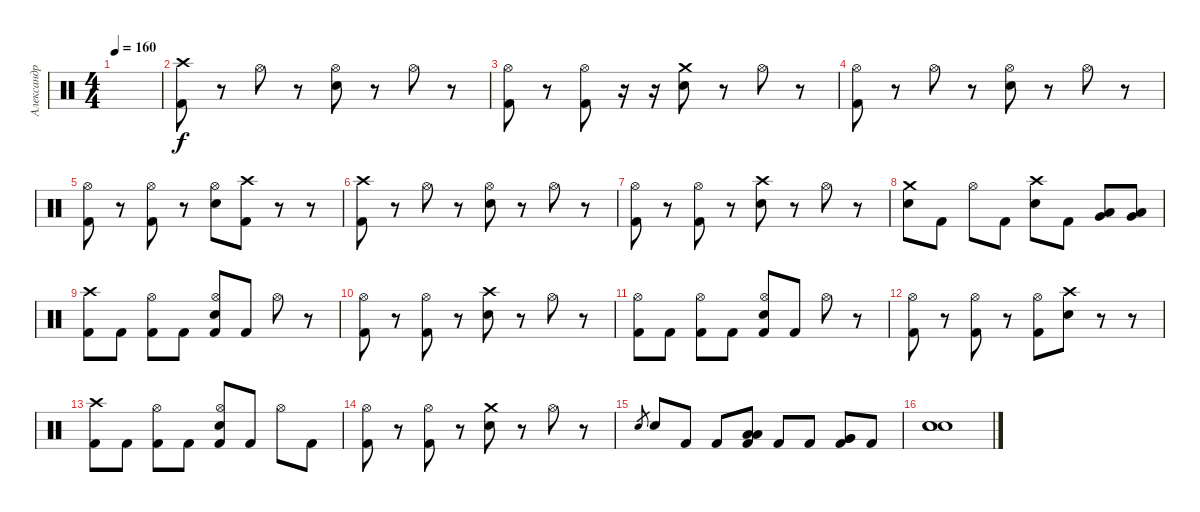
\track ("Александр Карпухин" "Александр ") {instrument percussion}
\staff {score}
\articulation defaults
\ts (4 4)
\tempo 160
\clef neutral
\ks c
|
("Crash high (hit)" "Kick (hit) 2").8 r.8 "Hi-Hat (open)".8 r.8 ("Hi-Hat (open)" "Electric Snare (hit)").8 r.8 "Hi-Hat (open)".8 r.8 |
("Hi-Hat (open)" "Kick (hit) 2").8 r.8 ("Hi-Hat (open)" "Kick (hit) 2").8 r.16 r.16 ("Crash medium (hit)" "Electric Snare (hit)").8 r.8 "Hi-Hat (open)".8 r.8 |
("Hi-Hat (open)" "Kick (hit) 2").8 r.8 "Hi-Hat (open)".8 r.8 ("Hi-Hat (open)" "Electric Snare (hit)").8 r.8 "Hi-Hat (open)".8 r.8 |
("Hi-Hat (open)" "Kick (hit) 2").8 r.8 ("Hi-Hat (open)" "Kick (hit) 2").8 r.8 ("Hi-Hat (open)" "Electric Snare (hit)").8 ("Crash high (hit)" "Kick (hit) 2").8 r.8 r.8 |
("Crash high (hit)" "Kick (hit) 2").8 r.8 "Hi-Hat (open)".8 r.8 ("Hi-Hat (open)" "Electric Snare (hit)").8 r.8 "Hi-Hat (open)".8 r.8 |
("Hi-Hat (open)" "Kick (hit) 2").8 r.8 ("Hi-Hat (open)" "Kick (hit) 2").8 r.8 ("Crash high (hit)" "Electric Snare (hit)").8 r.8 "Hi-Hat (open)".8 r.8 |
("Crash medium (hit)" "Electric Snare (hit)").8 "Kick (hit) 2".8 "Hi-Hat (open)".8 "Kick (hit) 2".8 ("Crash high (hit)" "Electric Snare (hit)").8 "Kick (hit) 2".8 ("Very Low Tom (hit)" "Low Floor Tom (hit)").8 ("Very Low Tom (hit)" "Low Floor Tom (hit)").8 |
("Crash high (hit)" "Kick (hit) 2").8 "Kick (hit) 2".8 ("Hi-Hat (open)" "Kick (hit) 2").8 "Kick (hit) 2".8 ("Hi-Hat (open)" "Electric Snare (hit)" "Kick (hit) 2").8 "Kick (hit) 2".8 "Hi-Hat (open)".8 r.8 |
("Hi-Hat (open)" "Kick (hit) 2").8 r.8 ("Hi-Hat (open)" "Kick (hit) 2").8 r.8 ("Crash high (hit)" "Electric Snare (hit)").8 r.8 "Hi-Hat (open)".8 r.8 |
("Hi-Hat (open)" "Kick (hit) 2").8 "Kick (hit) 2".8 ("Hi-Hat (open)" "Kick (hit) 2").8 "Kick (hit) 2".8 ("Hi-Hat (open)" "Electric Snare (hit)" "Kick (hit) 2").8 "Kick (hit) 2".8 "Hi-Hat (open)".8 r.8 |
("Hi-Hat (open)" "Kick (hit) 2").8 r.8 ("Hi-Hat (open)" "Kick (hit) 2").8 r.8 ("Hi-Hat (open)" "Kick (hit) 2").8 ("Crash high (hit)" "Electric Snare (hit)").8 r.8 r.8 |
("Crash high (hit)" "Kick (hit) 2").8 "Kick (hit) 2".8 ("Hi-Hat (open)" "Kick (hit) 2").8 "Kick (hit) 2".8 ("Hi-Hat (open)" "Electric Snare (hit)" "Kick (hit) 2").8 "Kick (hit) 2".8 "Hi-Hat (open)".8 "Kick (hit) 2".8 |
("Hi-Hat (open)" "Kick (hit) 2").8 r.8 ("Hi-Hat (open)" "Kick (hit) 2").8 r.8 ("Crash medium (hit)" "Electric Snare (hit)").8 r.8 "Hi-Hat (open)".8 r.8 |
"Electric Snare (hit)".8{gr} "Electric Snare (hit)".8 "Kick (hit) 2".8 "Kick (hit) 2".8 ("Low Tom (hit)" "Low Tom (hit)" "Kick (hit) 2").8 "Kick (hit) 2".8 "Kick (hit) 2".8 ("Very Low Tom (hit)" "Very Low Tom (hit)" "Kick (hit) 2").8 "Kick (hit) 2".8 |
("Snare (hit) 2" "Electric Snare (hit)" "Electric Snare (hit)").1
